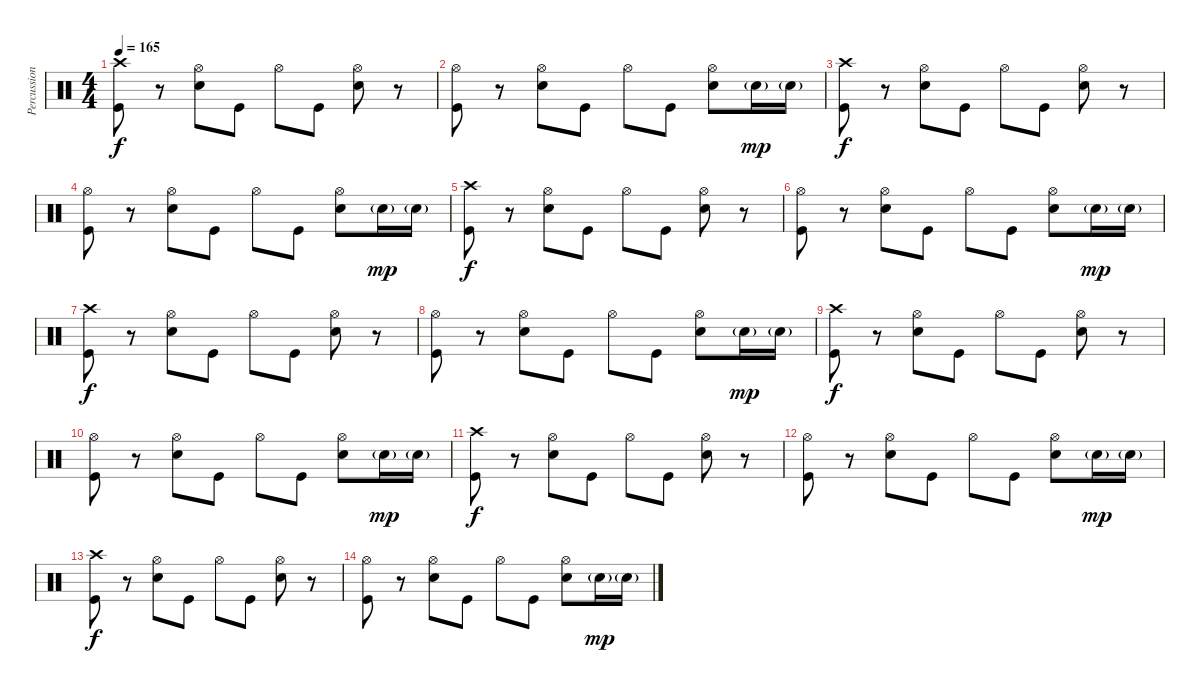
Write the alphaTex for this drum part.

\track ("Percussion" "Percussion") {instrument percussion}
\staff {score}
\articulation defaults
\ts (4 4)
\tempo 165
\clef neutral
\ks c
("Crash high (hit)" "Kick (hit)").8{dy f} r.8 ("Hi-Hat (open)" "Snare (hit) 2").8 "Kick (hit)".8 "Hi-Hat (open)".8 "Kick (hit)".8 ("Hi-Hat (open)" "Snare (hit) 2").8 r.8 |
("Hi-Hat (open)" "Kick (hit)").8 r.8 ("Hi-Hat (open)" "Snare (hit) 2").8 "Kick (hit)".8 "Hi-Hat (open)".8 "Kick (hit)".8 ("Hi-Hat (open)" "Snare (hit) 2").8 "Snare (hit) 2"{g}.16{dy mp} "Snare (hit) 2"{g}.16 |
("Crash high (hit)" "Kick (hit)").8{dy f} r.8 ("Hi-Hat (open)" "Snare (hit) 2").8 "Kick (hit)".8 "Hi-Hat (open)".8 "Kick (hit)".8 ("Hi-Hat (open)" "Snare (hit) 2").8 r.8 |
("Hi-Hat (open)" "Kick (hit)").8 r.8 ("Hi-Hat (open)" "Snare (hit) 2").8 "Kick (hit)".8 "Hi-Hat (open)".8 "Kick (hit)".8 ("Hi-Hat (open)" "Snare (hit) 2").8 "Snare (hit) 2"{g}.16{dy mp} "Snare (hit) 2"{g}.16 |
("Crash high (hit)" "Kick (hit)").8{dy f} r.8 ("Hi-Hat (open)" "Snare (hit) 2").8 "Kick (hit)".8 "Hi-Hat (open)".8 "Kick (hit)".8 ("Hi-Hat (open)" "Snare (hit) 2").8 r.8 |
("Hi-Hat (open)" "Kick (hit)").8 r.8 ("Hi-Hat (open)" "Snare (hit) 2").8 "Kick (hit)".8 "Hi-Hat (open)".8 "Kick (hit)".8 ("Hi-Hat (open)" "Snare (hit) 2").8 "Snare (hit) 2"{g}.16{dy mp} "Snare (hit) 2"{g}.16 |
("Crash high (hit)" "Kick (hit)").8{dy f} r.8 ("Hi-Hat (open)" "Snare (hit) 2").8 "Kick (hit)".8 "Hi-Hat (open)".8 "Kick (hit)".8 ("Hi-Hat (open)" "Snare (hit) 2").8 r.8 |
("Hi-Hat (open)" "Kick (hit)").8 r.8 ("Hi-Hat (open)" "Snare (hit) 2").8 "Kick (hit)".8 "Hi-Hat (open)".8 "Kick (hit)".8 ("Hi-Hat (open)" "Snare (hit) 2").8 "Snare (hit) 2"{g}.16{dy mp} "Snare (hit) 2"{g}.16 |
("Crash high (hit)" "Kick (hit)").8{dy f} r.8 ("Hi-Hat (open)" "Snare (hit) 2").8 "Kick (hit)".8 "Hi-Hat (open)".8 "Kick (hit)".8 ("Hi-Hat (open)" "Snare (hit) 2").8 r.8 |
("Hi-Hat (open)" "Kick (hit)").8 r.8 ("Hi-Hat (open)" "Snare (hit) 2").8 "Kick (hit)".8 "Hi-Hat (open)".8 "Kick (hit)".8 ("Hi-Hat (open)" "Snare (hit) 2").8 "Snare (hit) 2"{g}.16{dy mp} "Snare (hit) 2"{g}.16 |
("Crash high (hit)" "Kick (hit)").8{dy f} r.8 ("Hi-Hat (open)" "Snare (hit) 2").8 "Kick (hit)".8 "Hi-Hat (open)".8 "Kick (hit)".8 ("Hi-Hat (open)" "Snare (hit) 2").8 r.8 |
("Hi-Hat (open)" "Kick (hit)").8 r.8 ("Hi-Hat (open)" "Snare (hit) 2").8 "Kick (hit)".8 "Hi-Hat (open)".8 "Kick (hit)".8 ("Hi-Hat (open)" "Snare (hit) 2").8 "Snare (hit) 2"{g}.16{dy mp} "Snare (hit) 2"{g}.16 |
("Crash high (hit)" "Kick (hit)").8{dy f} r.8 ("Hi-Hat (open)" "Snare (hit) 2").8 "Kick (hit)".8 "Hi-Hat (open)".8 "Kick (hit)".8 ("Hi-Hat (open)" "Snare (hit) 2").8 r.8 |
("Hi-Hat (open)" "Kick (hit)").8 r.8 ("Hi-Hat (open)" "Snare (hit) 2").8 "Kick (hit)".8 "Hi-Hat (open)".8 "Kick (hit)".8 ("Hi-Hat (open)" "Snare (hit) 2").8 "Snare (hit) 2"{g}.16{dy mp} "Snare (hit) 2"{g}.16
